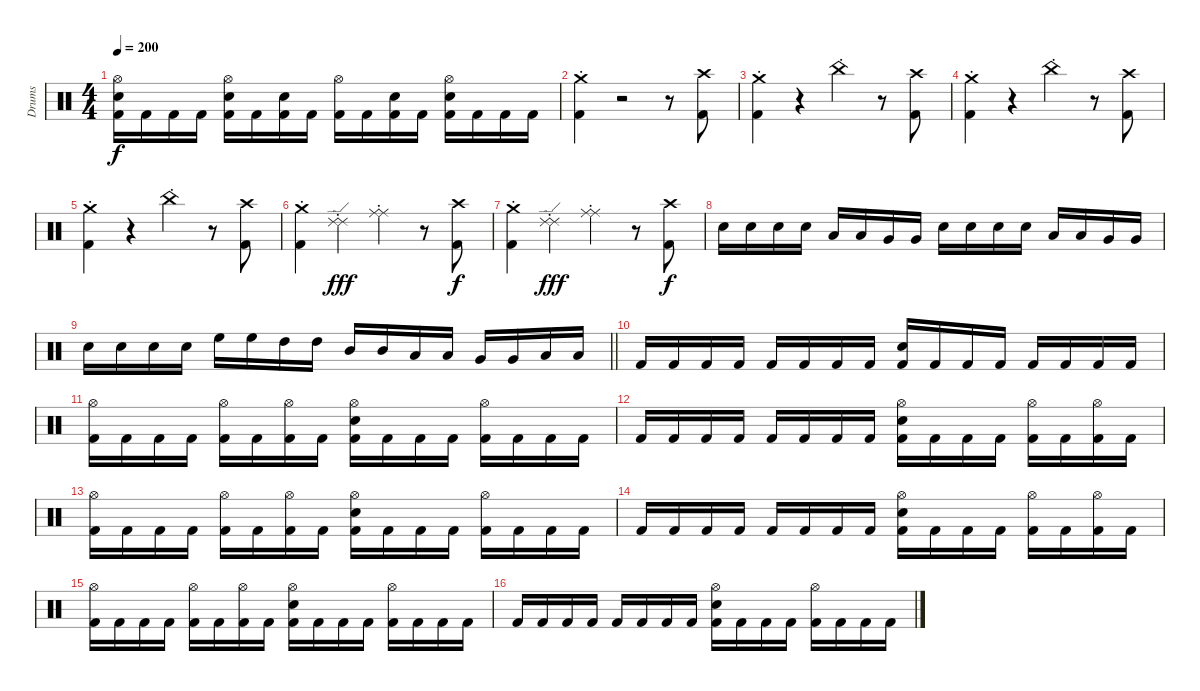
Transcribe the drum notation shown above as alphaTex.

\track ("Drums" "Drums") {instrument percussion}
\staff {score}
\articulation defaults
\ts (4 4)
\tempo 200
\clef neutral
\ks c
("Hi-Hat (open)" "Snare (hit) 2" "Kick (hit) 2").16{dy f} "Kick (hit) 2".16 "Kick (hit) 2".16 "Kick (hit) 2".16 ("Hi-Hat (open)" "Snare (hit) 2" "Kick (hit) 2").16 "Kick (hit) 2".16 ("Snare (hit) 2" "Kick (hit) 2").16 "Kick (hit) 2".16 ("Hi-Hat (open)" "Kick (hit) 2").16 "Kick (hit) 2".16 ("Snare (hit) 2" "Kick (hit) 2").16 "Kick (hit) 2".16 ("Hi-Hat (open)" "Snare (hit) 2" "Kick (hit) 2").16 "Kick (hit) 2".16 "Kick (hit) 2".16 "Kick (hit) 2".16 |
("Crash medium (hit)"{st} "Kick (hit) 2"{st}).4 r.2 r.8 ("Crash high (hit)" "Kick (hit) 2").8 |
("Crash medium (hit)"{st} "Kick (hit) 2"{st}).4 r.4 "China (hit)"{st}.4 r.8 ("Crash high (hit)" "Kick (hit) 2").8 |
("Crash medium (hit)"{st} "Kick (hit) 2"{st}).4 r.4 "China (hit)"{st}.4 r.8 ("Crash high (hit)" "Kick (hit) 2").8 |
("Crash medium (hit)"{st} "Kick (hit) 2"{st}).4 r.4 "China (hit)"{st}.4 r.8 ("Crash high (hit)" "Kick (hit) 2").8 |
("Crash medium (hit)"{st} "Kick (hit) 2"{st}).4 ("Ride (edge) 2"{st} "Ride (edge) 2"{st}).4{bu 480 dy fff} ("Ride (middle)"{st} "Ride (middle)"{st}).4{bd 480} r.8 ("Crash high (hit)" "Kick (hit) 2").8{dy f} |
("Crash medium (hit)"{st} "Kick (hit) 2"{st}).4 ("Ride (edge) 2"{st} "Ride (edge) 2"{st}).4{bu 480 dy fff} ("Ride (middle)"{st} "Ride (middle)"{st}).4{bd 480} r.8 ("Crash high (hit)" "Kick (hit) 2").8{dy f} |
"Snare (hit) 2".16 "Snare (hit) 2".16 "Snare (hit) 2".16 "Snare (hit) 2".16 "Low Tom (hit)".16 "Low Tom (hit)".16 "Very Low Tom (hit)".16 "Very Low Tom (hit)".16 "Snare (hit) 2".16 "Snare (hit) 2".16 "Snare (hit) 2".16 "Snare (hit) 2".16 "Low Tom (hit)".16 "Low Tom (hit)".16 "Very Low Tom (hit)".16 "Very Low Tom (hit)".16 |
\barLineRight lightlight "Snare (hit) 2".16 "Snare (hit) 2".16 "Snare (hit) 2".16 "Snare (hit) 2".16 "High Floor Tom (hit)".16 "High Floor Tom (hit)".16 "High Tom (hit)".16 "High Tom (hit)".16 "Mid Tom (hit)".16 "Mid Tom (hit)".16 "Low Tom (hit)".16 "Low Tom (hit)".16 "Very Low Tom (hit)".16 "Very Low Tom (hit)".16 "Low Floor Tom (hit)".16 "Low Floor Tom (hit)".16
|
"Kick (hit) 2".16 "Kick (hit) 2".16 "Kick (hit) 2".16 "Kick (hit) 2".16 "Kick (hit) 2".16 "Kick (hit) 2".16 "Kick (hit) 2".16 "Kick (hit) 2".16 ("Snare (hit) 2" "Kick (hit) 2").16 "Kick (hit) 2".16 "Kick (hit) 2".16 "Kick (hit) 2".16 "Kick (hit) 2".16 "Kick (hit) 2".16 "Kick (hit) 2".16 "Kick (hit) 2".16 |
("Hi-Hat (open)" "Kick (hit) 2").16 "Kick (hit) 2".16 "Kick (hit) 2".16 "Kick (hit) 2".16 ("Hi-Hat (open)" "Kick (hit) 2").16 "Kick (hit) 2".16 ("Hi-Hat (open)" "Kick (hit) 2").16 "Kick (hit) 2".16 ("Hi-Hat (open)" "Snare (hit) 2" "Kick (hit) 2").16 "Kick (hit) 2".16 "Kick (hit) 2".16 "Kick (hit) 2".16 ("Hi-Hat (open)" "Kick (hit) 2").16 "Kick (hit) 2".16 "Kick (hit) 2".16 "Kick (hit) 2".16 |
"Kick (hit) 2".16 "Kick (hit) 2".16 "Kick (hit) 2".16 "Kick (hit) 2".16 "Kick (hit) 2".16 "Kick (hit) 2".16 "Kick (hit) 2".16 "Kick (hit) 2".16 ("Hi-Hat (open)" "Snare (hit) 2" "Kick (hit) 2").16 "Kick (hit) 2".16 "Kick (hit) 2".16 "Kick (hit) 2".16 ("Hi-Hat (open)" "Kick (hit) 2").16 "Kick (hit) 2".16 ("Hi-Hat (open)" "Kick (hit) 2").16 "Kick (hit) 2".16 |
("Hi-Hat (open)" "Kick (hit) 2").16 "Kick (hit) 2".16 "Kick (hit) 2".16 "Kick (hit) 2".16 ("Hi-Hat (open)" "Kick (hit) 2").16 "Kick (hit) 2".16 ("Hi-Hat (open)" "Kick (hit) 2").16 "Kick (hit) 2".16 ("Hi-Hat (open)" "Snare (hit) 2" "Kick (hit) 2").16 "Kick (hit) 2".16 "Kick (hit) 2".16 "Kick (hit) 2".16 ("Hi-Hat (open)" "Kick (hit) 2").16 "Kick (hit) 2".16 "Kick (hit) 2".16 "Kick (hit) 2".16 |
"Kick (hit) 2".16 "Kick (hit) 2".16 "Kick (hit) 2".16 "Kick (hit) 2".16 "Kick (hit) 2".16 "Kick (hit) 2".16 "Kick (hit) 2".16 "Kick (hit) 2".16 ("Hi-Hat (open)" "Snare (hit) 2" "Kick (hit) 2").16 "Kick (hit) 2".16 "Kick (hit) 2".16 "Kick (hit) 2".16 ("Hi-Hat (open)" "Kick (hit) 2").16 "Kick (hit) 2".16 ("Hi-Hat (open)" "Kick (hit) 2").16 "Kick (hit) 2".16 |
("Hi-Hat (open)" "Kick (hit) 2").16 "Kick (hit) 2".16 "Kick (hit) 2".16 "Kick (hit) 2".16 ("Hi-Hat (open)" "Kick (hit) 2").16 "Kick (hit) 2".16 ("Hi-Hat (open)" "Kick (hit) 2").16 "Kick (hit) 2".16 ("Hi-Hat (open)" "Snare (hit) 2" "Kick (hit) 2").16 "Kick (hit) 2".16 "Kick (hit) 2".16 "Kick (hit) 2".16 ("Hi-Hat (open)" "Kick (hit) 2").16 "Kick (hit) 2".16 "Kick (hit) 2".16 "Kick (hit) 2".16 |
"Kick (hit) 2".16 "Kick (hit) 2".16 "Kick (hit) 2".16 "Kick (hit) 2".16 "Kick (hit) 2".16 "Kick (hit) 2".16 "Kick (hit) 2".16 "Kick (hit) 2".16 ("Hi-Hat (open)" "Snare (hit) 2" "Kick (hit) 2").16 "Kick (hit) 2".16 "Kick (hit) 2".16 "Kick (hit) 2".16 ("Hi-Hat (open)" "Kick (hit) 2").16 "Kick (hit) 2".16 "Kick (hit) 2".16 "Kick (hit) 2".16
